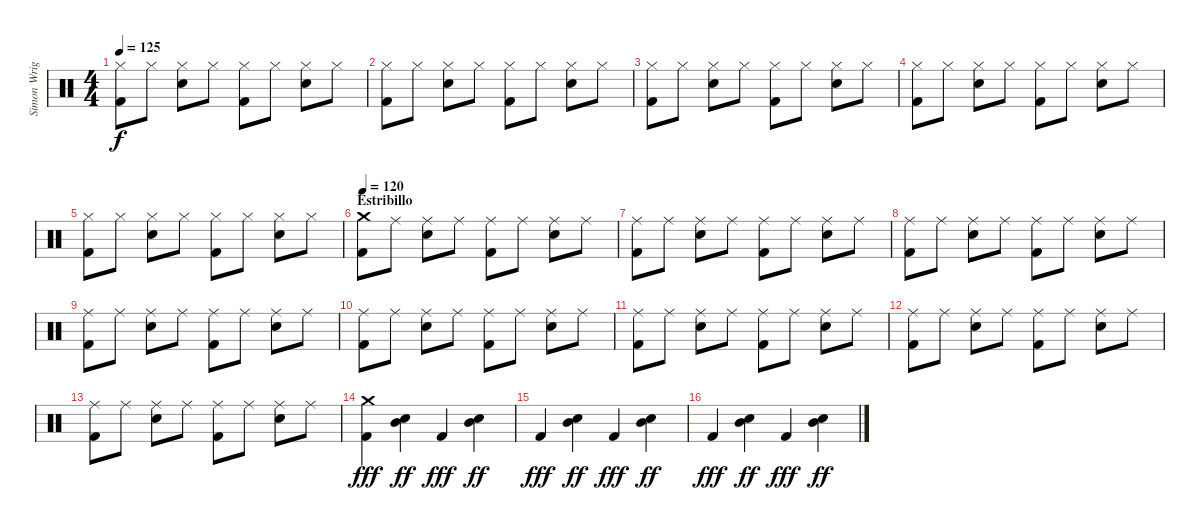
\track ("Simon Wright" "Simon Wrig") {instrument percussion}
\staff {score}
\articulation defaults
\ts (4 4)
\tempo 125
\clef neutral
\ks c
("Hi-Hat (closed)" "Kick (hit) 2").8{dy f} "Hi-Hat (closed)".8 ("Hi-Hat (closed)" "Snare (hit) 2").8 "Hi-Hat (closed)".8 ("Hi-Hat (closed)" "Kick (hit) 2").8 "Hi-Hat (closed)".8 ("Hi-Hat (closed)" "Snare (hit) 2").8 "Hi-Hat (closed)".8 |
("Hi-Hat (closed)" "Kick (hit) 2").8 "Hi-Hat (closed)".8 ("Hi-Hat (closed)" "Snare (hit) 2").8 "Hi-Hat (closed)".8 ("Hi-Hat (closed)" "Kick (hit) 2").8 "Hi-Hat (closed)".8 ("Hi-Hat (closed)" "Snare (hit) 2").8 "Hi-Hat (closed)".8 |
("Hi-Hat (closed)" "Kick (hit) 2").8 "Hi-Hat (closed)".8 ("Hi-Hat (closed)" "Snare (hit) 2").8 "Hi-Hat (closed)".8 ("Hi-Hat (closed)" "Kick (hit) 2").8 "Hi-Hat (closed)".8 ("Hi-Hat (closed)" "Snare (hit) 2").8 "Hi-Hat (closed)".8 |
("Hi-Hat (closed)" "Kick (hit) 2").8 "Hi-Hat (closed)".8 ("Hi-Hat (closed)" "Snare (hit) 2").8 "Hi-Hat (closed)".8 ("Hi-Hat (closed)" "Kick (hit) 2").8 "Hi-Hat (closed)".8 ("Hi-Hat (closed)" "Snare (hit) 2").8 "Hi-Hat (closed)".8 |
("Hi-Hat (closed)" "Kick (hit) 2").8 "Hi-Hat (closed)".8 ("Hi-Hat (closed)" "Snare (hit) 2").8 "Hi-Hat (closed)".8 ("Hi-Hat (closed)" "Kick (hit) 2").8 "Hi-Hat (closed)".8 ("Hi-Hat (closed)" "Snare (hit) 2").8 "Hi-Hat (closed)".8 |
\section ("" "Estribillo")
\tempo 120
("Crash medium (hit)" "Kick (hit) 2").8 "Ride (middle)".8 ("Ride (middle)" "Snare (hit) 2").8 "Ride (middle)".8 ("Ride (middle)" "Kick (hit) 2").8 "Ride (middle)".8 ("Ride (middle)" "Snare (hit) 2").8 "Ride (middle)".8 |
("Ride (middle)" "Kick (hit) 2").8 "Ride (middle)".8 ("Ride (middle)" "Snare (hit) 2").8 "Ride (middle)".8 ("Ride (middle)" "Kick (hit) 2").8 "Ride (middle)".8 ("Ride (middle)" "Snare (hit) 2").8 "Ride (middle)".8 |
("Ride (middle)" "Kick (hit) 2").8 "Ride (middle)".8 ("Ride (middle)" "Snare (hit) 2").8 "Ride (middle)".8 ("Ride (middle)" "Kick (hit) 2").8 "Ride (middle)".8 ("Ride (middle)" "Snare (hit) 2").8 "Ride (middle)".8 |
("Ride (middle)" "Kick (hit) 2").8 "Ride (middle)".8 ("Ride (middle)" "Snare (hit) 2").8 "Ride (middle)".8 ("Ride (middle)" "Kick (hit) 2").8 "Ride (middle)".8 ("Ride (middle)" "Snare (hit) 2").8 "Ride (middle)".8 |
("Ride (middle)" "Kick (hit) 2").8 "Ride (middle)".8 ("Ride (middle)" "Snare (hit) 2").8 "Ride (middle)".8 ("Ride (middle)" "Kick (hit) 2").8 "Ride (middle)".8 ("Ride (middle)" "Snare (hit) 2").8 "Ride (middle)".8 |
("Ride (middle)" "Kick (hit) 2").8 "Ride (middle)".8 ("Ride (middle)" "Snare (hit) 2").8 "Ride (middle)".8 ("Ride (middle)" "Kick (hit) 2").8 "Ride (middle)".8 ("Ride (middle)" "Snare (hit) 2").8 "Ride (middle)".8 |
("Ride (middle)" "Kick (hit) 2").8 "Ride (middle)".8 ("Ride (middle)" "Snare (hit) 2").8 "Ride (middle)".8 ("Ride (middle)" "Kick (hit) 2").8 "Ride (middle)".8 ("Ride (middle)" "Snare (hit) 2").8 "Ride (middle)".8 |
("Ride (middle)" "Kick (hit) 2").8 "Ride (middle)".8 ("Ride (middle)" "Snare (hit) 2").8 "Ride (middle)".8 ("Ride (middle)" "Kick (hit) 2").8 "Ride (middle)".8 ("Ride (middle)" "Snare (hit) 2").8 "Ride (middle)".8 |
("Crash medium (hit)" "Kick (hit) 2").4{dy fff} ("Snare (hit) 2" "Mid Tom (hit)").4{dy ff} "Kick (hit) 2".4{dy fff} ("Snare (hit) 2" "Mid Tom (hit)").4{dy ff} |
"Kick (hit) 2".4{dy fff} ("Snare (hit) 2" "Mid Tom (hit)").4{dy ff} "Kick (hit) 2".4{dy fff} ("Snare (hit) 2" "Mid Tom (hit)").4{dy ff} |
"Kick (hit) 2".4{dy fff} ("Snare (hit) 2" "Mid Tom (hit)").4{dy ff} "Kick (hit) 2".4{dy fff} ("Snare (hit) 2" "Mid Tom (hit)").4{dy ff}
